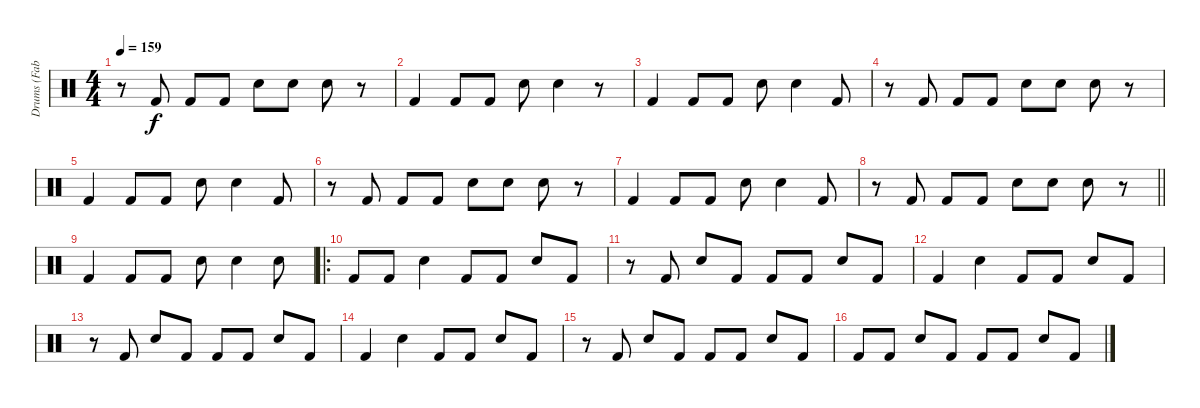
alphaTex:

\track ("Drums (Fabio)" "Drums (Fab") {instrument percussion}
\staff {score}
\articulation defaults
\ts (4 4)
\tempo 159
\clef neutral
\ks c
r.8{dy f} "Kick (hit) 2".8 "Kick (hit) 2".8 "Kick (hit) 2".8 "Snare (hit) 2"{tr (38 16)}.8 "Snare (hit) 2"{tr (38 16)}.8 "Snare (hit) 2"{tr (38 16)}.8 r.8 |
"Kick (hit) 2".4 "Kick (hit) 2".8 "Kick (hit) 2".8 "Snare (hit) 2".8 "Snare (hit) 2".4 r.8 |
"Kick (hit) 2".4 "Kick (hit) 2".8 "Kick (hit) 2".8 "Snare (hit) 2".8 "Snare (hit) 2".4 "Kick (hit) 2".8 |
r.8 "Kick (hit) 2".8 "Kick (hit) 2".8 "Kick (hit) 2".8 "Snare (hit) 2".8 "Snare (hit) 2".8 "Snare (hit) 2".8 r.8 |
"Kick (hit) 2".4 "Kick (hit) 2".8 "Kick (hit) 2".8 "Snare (hit) 2".8 "Snare (hit) 2".4 "Kick (hit) 2".8 |
r.8 "Kick (hit) 2".8 "Kick (hit) 2".8 "Kick (hit) 2".8 "Snare (hit) 2".8 "Snare (hit) 2".8 "Snare (hit) 2".8 r.8 |
"Kick (hit) 2".4 "Kick (hit) 2".8 "Kick (hit) 2".8 "Snare (hit) 2".8 "Snare (hit) 2".4 "Kick (hit) 2".8 |
\barLineRight lightlight
r.8 "Kick (hit) 2".8 "Kick (hit) 2".8 "Kick (hit) 2".8 "Snare (hit) 2".8 "Snare (hit) 2".8 "Snare (hit) 2".8 r.8 |
"Kick (hit) 2".4 "Kick (hit) 2".8 "Kick (hit) 2".8 "Snare (hit) 2"{tr (38 16)}.8 "Snare (hit) 2"{tr (38 16)}.4 "Snare (hit) 2"{tr (38 16)}.8 |
\ro "Kick (hit) 2".8 "Kick (hit) 2".8 "Snare (hit) 2".4 "Kick (hit) 2".8 "Kick (hit) 2".8 "Snare (hit) 2".8 "Kick (hit) 2".8
|
r.8 "Kick (hit) 2".8 "Snare (hit) 2".8 "Kick (hit) 2".8 "Kick (hit) 2".8 "Kick (hit) 2".8 "Snare (hit) 2".8 "Kick (hit) 2".8 |
"Kick (hit) 2".4 "Snare (hit) 2".4 "Kick (hit) 2".8 "Kick (hit) 2".8 "Snare (hit) 2".8 "Kick (hit) 2".8 |
r.8 "Kick (hit) 2".8 "Snare (hit) 2".8 "Kick (hit) 2".8 "Kick (hit) 2".8 "Kick (hit) 2".8 "Snare (hit) 2".8 "Kick (hit) 2".8 |
"Kick (hit) 2".4 "Snare (hit) 2".4 "Kick (hit) 2".8 "Kick (hit) 2".8 "Snare (hit) 2".8 "Kick (hit) 2".8 |
r.8 "Kick (hit) 2".8 "Snare (hit) 2".8 "Kick (hit) 2".8 "Kick (hit) 2".8 "Kick (hit) 2".8 "Snare (hit) 2".8 "Kick (hit) 2".8 |
"Kick (hit) 2".8 "Kick (hit) 2".8 "Snare (hit) 2".8 "Kick (hit) 2".8 "Kick (hit) 2".8 "Kick (hit) 2".8 "Snare (hit) 2".8 "Kick (hit) 2".8
